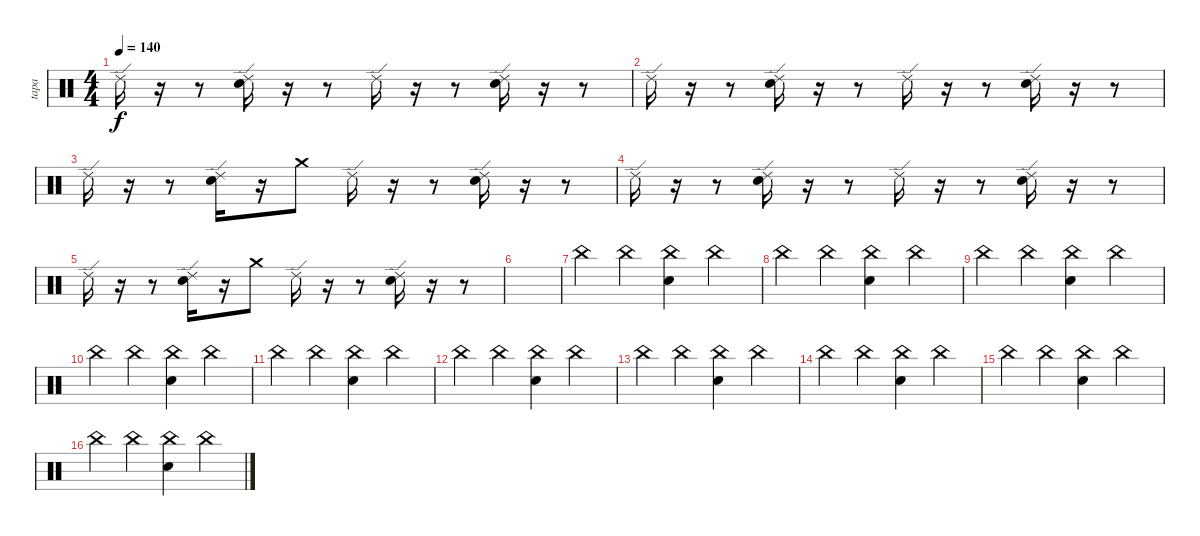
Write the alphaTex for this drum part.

\track ("tapa" "tapa") {instrument percussion}
\staff {score}
\articulation defaults
\ts (4 4)
\tempo 140
\clef neutral
\ks c "Ride (edge) 2".16{dy f}
r.16 r.8 ("Ride (edge) 2" "Snare (hit) 2").16 r.16 r.8 "Ride (edge) 2".16 r.16 r.8 ("Ride (edge) 2" "Snare (hit) 2").16 r.16 r.8 |
"Ride (edge) 2".16 r.16 r.8 ("Ride (edge) 2" "Snare (hit) 2").16 r.16 r.8 "Ride (edge) 2".16 r.16 r.8 ("Ride (edge) 2" "Snare (hit) 2").16 r.16 r.8 |
"Ride (edge) 2".16 r.16 r.8 ("Ride (edge) 2" "Snare (hit) 2").16 r.16 "Crash medium (hit)".8 "Ride (edge) 2".16 r.16 r.8 ("Ride (edge) 2" "Snare (hit) 2").16 r.16 r.8 |
"Ride (edge) 2".16 r.16 r.8 ("Ride (edge) 2" "Snare (hit) 2").16 r.16 r.8 "Ride (edge) 2".16 r.16 r.8 ("Ride (edge) 2" "Snare (hit) 2").16 r.16 r.8 |
"Ride (edge) 2".16 r.16 r.8 ("Ride (edge) 2" "Snare (hit) 2").16 r.16 "Crash medium (hit)".8 "Ride (edge) 2".16 r.16 r.8 ("Ride (edge) 2" "Snare (hit) 2").16 r.16 r.8 |
|
"China (hit)".4 "China (hit)".4 ("China (hit)" "Snare (hit) 2").4 "China (hit)".4 |
"China (hit)".4 "China (hit)".4 ("China (hit)" "Snare (hit) 2").4 "China (hit)".4 |
"China (hit)".4 "China (hit)".4 ("China (hit)" "Snare (hit) 2").4 "China (hit)".4 |
"China (hit)".4 "China (hit)".4 ("China (hit)" "Snare (hit) 2").4 "China (hit)".4 |
"China (hit)".4 "China (hit)".4 ("China (hit)" "Snare (hit) 2").4 "China (hit)".4 |
"China (hit)".4 "China (hit)".4 ("China (hit)" "Snare (hit) 2").4 "China (hit)".4 |
"China (hit)".4 "China (hit)".4 ("China (hit)" "Snare (hit) 2").4 "China (hit)".4 |
"China (hit)".4 "China (hit)".4 ("China (hit)" "Snare (hit) 2").4 "China (hit)".4 |
"China (hit)".4 "China (hit)".4 ("China (hit)" "Snare (hit) 2").4 "China (hit)".4 |
"China (hit)".4 "China (hit)".4 ("China (hit)" "Snare (hit) 2").4 "China (hit)".4
